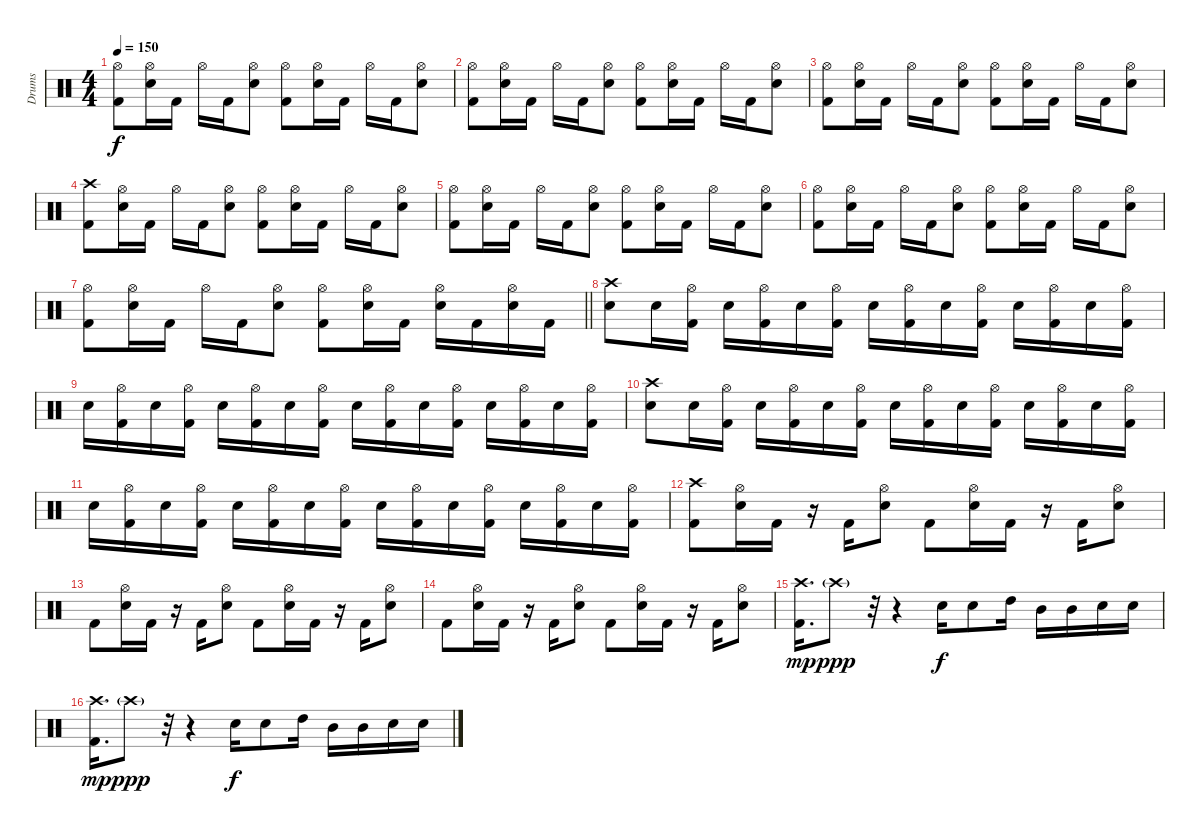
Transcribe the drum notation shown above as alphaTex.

\track ("Drums" "Drums") {instrument percussion}
\staff {score}
\articulation defaults
\ts (4 4)
\tempo 150
\clef neutral
\ks c
("Hi-Hat (open)" "Kick (hit) 2").8{dy f} ("Hi-Hat (open)" "Electric Snare (hit)").16 "Kick (hit) 2".16 "Hi-Hat (open)".16 "Kick (hit) 2".16 ("Hi-Hat (open)" "Electric Snare (hit)").8 ("Hi-Hat (open)" "Kick (hit) 2").8 ("Hi-Hat (open)" "Electric Snare (hit)").16 "Kick (hit) 2".16 "Hi-Hat (open)".16 "Kick (hit) 2".16 ("Hi-Hat (open)" "Electric Snare (hit)").8 |
("Hi-Hat (open)" "Kick (hit) 2").8 ("Hi-Hat (open)" "Electric Snare (hit)").16 "Kick (hit) 2".16 "Hi-Hat (open)".16 "Kick (hit) 2".16 ("Hi-Hat (open)" "Electric Snare (hit)").8 ("Hi-Hat (open)" "Kick (hit) 2").8 ("Hi-Hat (open)" "Electric Snare (hit)").16 "Kick (hit) 2".16 "Hi-Hat (open)".16 "Kick (hit) 2".16 ("Hi-Hat (open)" "Electric Snare (hit)").8 |
("Hi-Hat (open)" "Kick (hit) 2").8 ("Hi-Hat (open)" "Electric Snare (hit)").16 "Kick (hit) 2".16 "Hi-Hat (open)".16 "Kick (hit) 2".16 ("Hi-Hat (open)" "Electric Snare (hit)").8 ("Hi-Hat (open)" "Kick (hit) 2").8 ("Hi-Hat (open)" "Electric Snare (hit)").16 "Kick (hit) 2".16 "Hi-Hat (open)".16 "Kick (hit) 2".16 ("Hi-Hat (open)" "Electric Snare (hit)").8 |
("Crash high (hit)" "Kick (hit) 2").8 ("Hi-Hat (open)" "Electric Snare (hit)").16 "Kick (hit) 2".16 "Hi-Hat (open)".16 "Kick (hit) 2".16 ("Hi-Hat (open)" "Electric Snare (hit)").8 ("Hi-Hat (open)" "Kick (hit) 2").8 ("Hi-Hat (open)" "Electric Snare (hit)").16 "Kick (hit) 2".16 "Hi-Hat (open)".16 "Kick (hit) 2".16 ("Hi-Hat (open)" "Electric Snare (hit)").8 |
("Hi-Hat (open)" "Kick (hit) 2").8 ("Hi-Hat (open)" "Electric Snare (hit)").16 "Kick (hit) 2".16 "Hi-Hat (open)".16 "Kick (hit) 2".16 ("Hi-Hat (open)" "Electric Snare (hit)").8 ("Hi-Hat (open)" "Kick (hit) 2").8 ("Hi-Hat (open)" "Electric Snare (hit)").16 "Kick (hit) 2".16 "Hi-Hat (open)".16 "Kick (hit) 2".16 ("Hi-Hat (open)" "Electric Snare (hit)").8 |
("Hi-Hat (open)" "Kick (hit) 2").8 ("Hi-Hat (open)" "Electric Snare (hit)").16 "Kick (hit) 2".16 "Hi-Hat (open)".16 "Kick (hit) 2".16 ("Hi-Hat (open)" "Electric Snare (hit)").8 ("Hi-Hat (open)" "Kick (hit) 2").8 ("Hi-Hat (open)" "Electric Snare (hit)").16 "Kick (hit) 2".16 "Hi-Hat (open)".16 "Kick (hit) 2".16 ("Hi-Hat (open)" "Electric Snare (hit)").8 |
\barLineRight lightlight
("Hi-Hat (open)" "Kick (hit) 2").8 ("Hi-Hat (open)" "Electric Snare (hit)").16 "Kick (hit) 2".16 "Hi-Hat (open)".16 "Kick (hit) 2".16 ("Hi-Hat (open)" "Electric Snare (hit)").8 ("Hi-Hat (open)" "Kick (hit) 2").8 ("Hi-Hat (open)" "Electric Snare (hit)").16 "Kick (hit) 2".16 ("Hi-Hat (open)" "Electric Snare (hit)").16 "Kick (hit) 2".16 ("Hi-Hat (open)" "Electric Snare (hit)").16 "Kick (hit) 2".16 |
("Crash high (hit)" "Electric Snare (hit)").8 "Electric Snare (hit)".16 ("Hi-Hat (open)" "Kick (hit) 2").16 "Electric Snare (hit)".16 ("Hi-Hat (open)" "Kick (hit) 2").16 "Electric Snare (hit)".16 ("Hi-Hat (open)" "Kick (hit) 2").16 "Electric Snare (hit)".16 ("Hi-Hat (open)" "Kick (hit) 2").16 "Electric Snare (hit)".16 ("Hi-Hat (open)" "Kick (hit) 2").16 "Electric Snare (hit)".16 ("Hi-Hat (open)" "Kick (hit) 2").16 "Electric Snare (hit)".16 ("Hi-Hat (open)" "Kick (hit) 2").16 |
"Electric Snare (hit)".16 ("Hi-Hat (open)" "Kick (hit) 2").16 "Electric Snare (hit)".16 ("Hi-Hat (open)" "Kick (hit) 2").16 "Electric Snare (hit)".16 ("Hi-Hat (open)" "Kick (hit) 2").16 "Electric Snare (hit)".16 ("Hi-Hat (open)" "Kick (hit) 2").16 "Electric Snare (hit)".16 ("Hi-Hat (open)" "Kick (hit) 2").16 "Electric Snare (hit)".16 ("Hi-Hat (open)" "Kick (hit) 2").16 "Electric Snare (hit)".16 ("Hi-Hat (open)" "Kick (hit) 2").16 "Electric Snare (hit)".16 ("Hi-Hat (open)" "Kick (hit) 2").16 |
("Crash high (hit)" "Electric Snare (hit)").8 "Electric Snare (hit)".16 ("Hi-Hat (open)" "Kick (hit) 2").16 "Electric Snare (hit)".16 ("Hi-Hat (open)" "Kick (hit) 2").16 "Electric Snare (hit)".16 ("Hi-Hat (open)" "Kick (hit) 2").16 "Electric Snare (hit)".16 ("Hi-Hat (open)" "Kick (hit) 2").16 "Electric Snare (hit)".16 ("Hi-Hat (open)" "Kick (hit) 2").16 "Electric Snare (hit)".16 ("Hi-Hat (open)" "Kick (hit) 2").16 "Electric Snare (hit)".16 ("Hi-Hat (open)" "Kick (hit) 2").16 |
"Electric Snare (hit)".16 ("Hi-Hat (open)" "Kick (hit) 2").16 "Electric Snare (hit)".16 ("Hi-Hat (open)" "Kick (hit) 2").16 "Electric Snare (hit)".16 ("Hi-Hat (open)" "Kick (hit) 2").16 "Electric Snare (hit)".16 ("Hi-Hat (open)" "Kick (hit) 2").16 "Electric Snare (hit)".16 ("Hi-Hat (open)" "Kick (hit) 2").16 "Electric Snare (hit)".16 ("Hi-Hat (open)" "Kick (hit) 2").16 "Electric Snare (hit)".16 ("Hi-Hat (open)" "Kick (hit) 2").16 "Electric Snare (hit)".16 ("Hi-Hat (open)" "Kick (hit) 2").16 |
("Crash high (hit)" "Kick (hit) 2").8 ("Hi-Hat (open)" "Electric Snare (hit)").16 "Kick (hit) 2".16 r.16 "Kick (hit) 2".16 ("Hi-Hat (open)" "Electric Snare (hit)").8 "Kick (hit) 2".8 ("Hi-Hat (open)" "Electric Snare (hit)").16 "Kick (hit) 2".16 r.16 "Kick (hit) 2".16 ("Hi-Hat (open)" "Electric Snare (hit)").8 |
"Kick (hit) 2".8 ("Hi-Hat (open)" "Electric Snare (hit)").16 "Kick (hit) 2".16 r.16 "Kick (hit) 2".16 ("Hi-Hat (open)" "Electric Snare (hit)").8 "Kick (hit) 2".8 ("Hi-Hat (open)" "Electric Snare (hit)").16 "Kick (hit) 2".16 r.16 "Kick (hit) 2".16 ("Hi-Hat (open)" "Electric Snare (hit)").8 |
"Kick (hit) 2".8 ("Hi-Hat (open)" "Electric Snare (hit)").16 "Kick (hit) 2".16 r.16 "Kick (hit) 2".16 ("Hi-Hat (open)" "Electric Snare (hit)").8 "Kick (hit) 2".8 ("Hi-Hat (open)" "Electric Snare (hit)").16 "Kick (hit) 2".16 r.16 "Kick (hit) 2".16 ("Hi-Hat (open)" "Electric Snare (hit)").8 |
("Crash high (hit)" "Kick (hit) 2").16{d dy mp} "Crash high (hit)"{g}.8{dy ppp} r.32 r.4 "Electric Snare (hit)".16{dy f} "Electric Snare (hit)".8 "High Tom (hit)".16 "Mid Tom (hit)".16 "Mid Tom (hit)".16 "Electric Snare (hit)".16 "Electric Snare (hit)".16 |
("Crash high (hit)" "Kick (hit) 2").16{d dy mp} "Crash high (hit)"{g}.8{dy ppp} r.32 r.4 "Electric Snare (hit)".16{dy f} "Electric Snare (hit)".8 "High Tom (hit)".16 "Mid Tom (hit)".16 "Mid Tom (hit)".16 "Electric Snare (hit)".16 "Electric Snare (hit)".16
